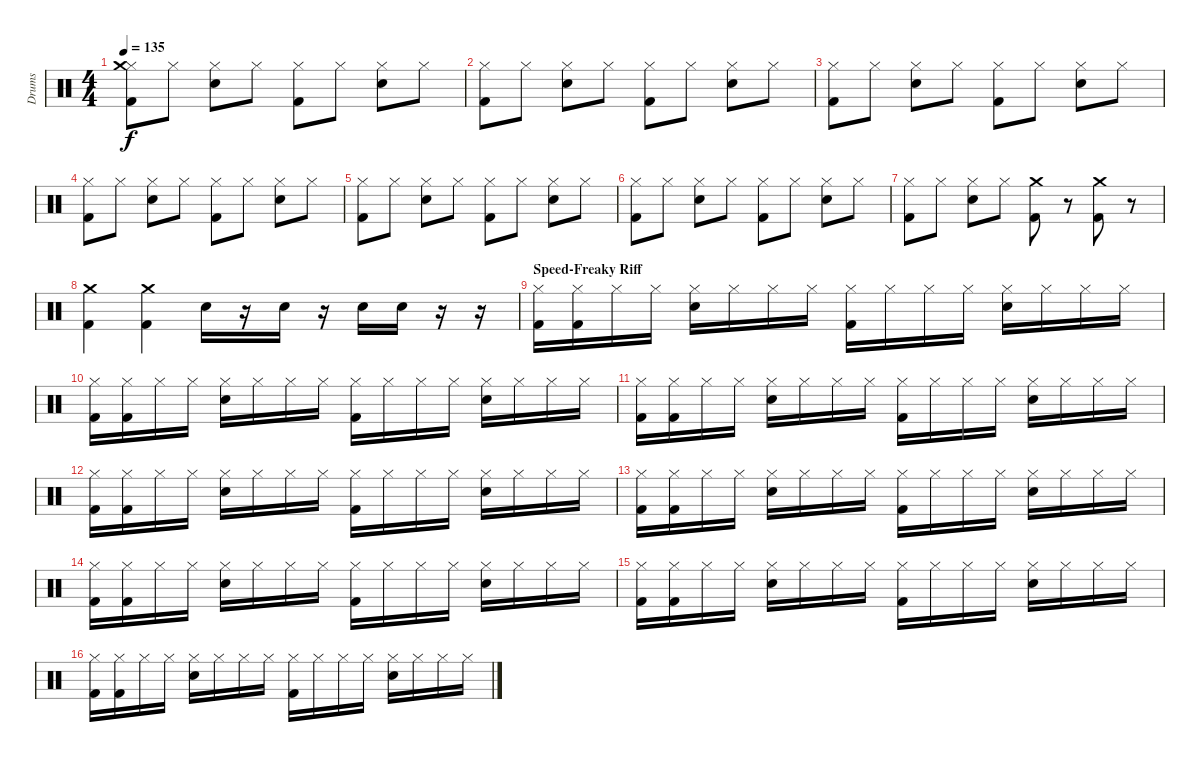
\track ("Drums" "Drums") {instrument percussion}
\staff {score}
\articulation defaults
\ts (4 4)
\tempo 135
\clef neutral
\ks c
("Hi-Hat (closed)" "Kick (hit) 2" "Crash medium (hit)").8{dy f} "Hi-Hat (closed)".8 ("Hi-Hat (closed)" "Snare (hit) 2").8 "Hi-Hat (closed)".8 ("Hi-Hat (closed)" "Kick (hit) 2").8 "Hi-Hat (closed)".8 ("Hi-Hat (closed)" "Snare (hit) 2").8 "Hi-Hat (closed)".8 |
("Hi-Hat (closed)" "Kick (hit) 2").8 "Hi-Hat (closed)".8 ("Hi-Hat (closed)" "Snare (hit) 2").8 "Hi-Hat (closed)".8 ("Hi-Hat (closed)" "Kick (hit) 2").8 "Hi-Hat (closed)".8 ("Hi-Hat (closed)" "Snare (hit) 2").8 "Hi-Hat (closed)".8 |
("Hi-Hat (closed)" "Kick (hit) 2").8 "Hi-Hat (closed)".8 ("Hi-Hat (closed)" "Snare (hit) 2").8 "Hi-Hat (closed)".8 ("Hi-Hat (closed)" "Kick (hit) 2").8 "Hi-Hat (closed)".8 ("Hi-Hat (closed)" "Snare (hit) 2").8 "Hi-Hat (closed)".8 |
("Hi-Hat (closed)" "Kick (hit) 2").8 "Hi-Hat (closed)".8 ("Hi-Hat (closed)" "Snare (hit) 2").8 "Hi-Hat (closed)".8 ("Hi-Hat (closed)" "Kick (hit) 2").8 "Hi-Hat (closed)".8 ("Hi-Hat (closed)" "Snare (hit) 2").8 "Hi-Hat (closed)".8 |
("Hi-Hat (closed)" "Kick (hit) 2").8 "Hi-Hat (closed)".8 ("Hi-Hat (closed)" "Snare (hit) 2").8 "Hi-Hat (closed)".8 ("Hi-Hat (closed)" "Kick (hit) 2").8 "Hi-Hat (closed)".8 ("Hi-Hat (closed)" "Snare (hit) 2").8 "Hi-Hat (closed)".8 |
("Hi-Hat (closed)" "Kick (hit) 2").8 "Hi-Hat (closed)".8 ("Hi-Hat (closed)" "Snare (hit) 2").8 "Hi-Hat (closed)".8 ("Hi-Hat (closed)" "Kick (hit) 2").8 "Hi-Hat (closed)".8 ("Hi-Hat (closed)" "Snare (hit) 2").8 "Hi-Hat (closed)".8 |
("Hi-Hat (closed)" "Kick (hit) 2").8 "Hi-Hat (closed)".8 ("Hi-Hat (closed)" "Snare (hit) 2").8 "Hi-Hat (closed)".8 ("Crash medium (hit)" "Kick (hit) 2").8 r.8 ("Crash medium (hit)" "Kick (hit) 2").8 r.8 |
("Crash medium (hit)" "Kick (hit) 2").4 ("Crash medium (hit)" "Kick (hit) 2").4 "Snare (hit) 2".16 r.16 "Snare (hit) 2".16 r.16 "Snare (hit) 2".16 "Snare (hit) 2".16 r.16 r.16 |
\section ("" "Speed-Freaky Riff")
("Hi-Hat (closed)" "Kick (hit) 2").16 ("Hi-Hat (closed)" "Kick (hit) 2").16 "Hi-Hat (closed)".16 "Hi-Hat (closed)".16 ("Hi-Hat (closed)" "Snare (hit) 2").16 "Hi-Hat (closed)".16 "Hi-Hat (closed)".16 "Hi-Hat (closed)".16 ("Hi-Hat (closed)" "Kick (hit) 2").16 "Hi-Hat (closed)".16 "Hi-Hat (closed)".16 "Hi-Hat (closed)".16 ("Hi-Hat (closed)" "Snare (hit) 2").16 "Hi-Hat (closed)".16 "Hi-Hat (closed)".16 "Hi-Hat (closed)".16 |
("Hi-Hat (closed)" "Kick (hit) 2").16 ("Hi-Hat (closed)" "Kick (hit) 2").16 "Hi-Hat (closed)".16 "Hi-Hat (closed)".16 ("Hi-Hat (closed)" "Snare (hit) 2").16 "Hi-Hat (closed)".16 "Hi-Hat (closed)".16 "Hi-Hat (closed)".16 ("Hi-Hat (closed)" "Kick (hit) 2").16 "Hi-Hat (closed)".16 "Hi-Hat (closed)".16 "Hi-Hat (closed)".16 ("Hi-Hat (closed)" "Snare (hit) 2").16 "Hi-Hat (closed)".16 "Hi-Hat (closed)".16 "Hi-Hat (closed)".16 |
("Hi-Hat (closed)" "Kick (hit) 2").16 ("Hi-Hat (closed)" "Kick (hit) 2").16 "Hi-Hat (closed)".16 "Hi-Hat (closed)".16 ("Hi-Hat (closed)" "Snare (hit) 2").16 "Hi-Hat (closed)".16 "Hi-Hat (closed)".16 "Hi-Hat (closed)".16 ("Hi-Hat (closed)" "Kick (hit) 2").16 "Hi-Hat (closed)".16 "Hi-Hat (closed)".16 "Hi-Hat (closed)".16 ("Hi-Hat (closed)" "Snare (hit) 2").16 "Hi-Hat (closed)".16 "Hi-Hat (closed)".16 "Hi-Hat (closed)".16 |
("Hi-Hat (closed)" "Kick (hit) 2").16 ("Hi-Hat (closed)" "Kick (hit) 2").16 "Hi-Hat (closed)".16 "Hi-Hat (closed)".16 ("Hi-Hat (closed)" "Snare (hit) 2").16 "Hi-Hat (closed)".16 "Hi-Hat (closed)".16 "Hi-Hat (closed)".16 ("Hi-Hat (closed)" "Kick (hit) 2").16 "Hi-Hat (closed)".16 "Hi-Hat (closed)".16 "Hi-Hat (closed)".16 ("Hi-Hat (closed)" "Snare (hit) 2").16 "Hi-Hat (closed)".16 "Hi-Hat (closed)".16 "Hi-Hat (closed)".16 |
("Hi-Hat (closed)" "Kick (hit) 2").16 ("Hi-Hat (closed)" "Kick (hit) 2").16 "Hi-Hat (closed)".16 "Hi-Hat (closed)".16 ("Hi-Hat (closed)" "Snare (hit) 2").16 "Hi-Hat (closed)".16 "Hi-Hat (closed)".16 "Hi-Hat (closed)".16 ("Hi-Hat (closed)" "Kick (hit) 2").16 "Hi-Hat (closed)".16 "Hi-Hat (closed)".16 "Hi-Hat (closed)".16 ("Hi-Hat (closed)" "Snare (hit) 2").16 "Hi-Hat (closed)".16 "Hi-Hat (closed)".16 "Hi-Hat (closed)".16 |
("Hi-Hat (closed)" "Kick (hit) 2").16 ("Hi-Hat (closed)" "Kick (hit) 2").16 "Hi-Hat (closed)".16 "Hi-Hat (closed)".16 ("Hi-Hat (closed)" "Snare (hit) 2").16 "Hi-Hat (closed)".16 "Hi-Hat (closed)".16 "Hi-Hat (closed)".16 ("Hi-Hat (closed)" "Kick (hit) 2").16 "Hi-Hat (closed)".16 "Hi-Hat (closed)".16 "Hi-Hat (closed)".16 ("Hi-Hat (closed)" "Snare (hit) 2").16 "Hi-Hat (closed)".16 "Hi-Hat (closed)".16 "Hi-Hat (closed)".16 |
("Hi-Hat (closed)" "Kick (hit) 2").16 ("Hi-Hat (closed)" "Kick (hit) 2").16 "Hi-Hat (closed)".16 "Hi-Hat (closed)".16 ("Hi-Hat (closed)" "Snare (hit) 2").16 "Hi-Hat (closed)".16 "Hi-Hat (closed)".16 "Hi-Hat (closed)".16 ("Hi-Hat (closed)" "Kick (hit) 2").16 "Hi-Hat (closed)".16 "Hi-Hat (closed)".16 "Hi-Hat (closed)".16 ("Hi-Hat (closed)" "Snare (hit) 2").16 "Hi-Hat (closed)".16 "Hi-Hat (closed)".16 "Hi-Hat (closed)".16 |
("Hi-Hat (closed)" "Kick (hit) 2").16 ("Hi-Hat (closed)" "Kick (hit) 2").16 "Hi-Hat (closed)".16 "Hi-Hat (closed)".16 ("Hi-Hat (closed)" "Snare (hit) 2").16 "Hi-Hat (closed)".16 "Hi-Hat (closed)".16 "Hi-Hat (closed)".16 ("Hi-Hat (closed)" "Kick (hit) 2").16 "Hi-Hat (closed)".16 "Hi-Hat (closed)".16 "Hi-Hat (closed)".16 ("Hi-Hat (closed)" "Snare (hit) 2").16 "Hi-Hat (closed)".16 "Hi-Hat (closed)".16 "Hi-Hat (closed)".16
